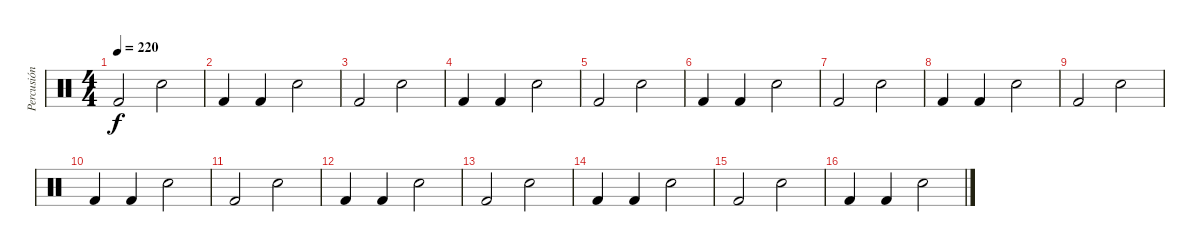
\track ("Percusión" "Percusión") {instrument percussion}
\staff {score}
\articulation defaults
\ts (4 4)
\tempo 220
\clef neutral
\ks c "Kick (hit) 2".2{dy f} "Electric Snare (hit)".2
|
"Kick (hit) 2".4 "Kick (hit) 2".4 "Electric Snare (hit)".2 |
"Kick (hit) 2".2 "Electric Snare (hit)".2 |
"Kick (hit) 2".4 "Kick (hit) 2".4 "Electric Snare (hit)".2 |
"Kick (hit) 2".2 "Electric Snare (hit)".2 |
"Kick (hit) 2".4 "Kick (hit) 2".4 "Electric Snare (hit)".2 |
"Kick (hit) 2".2 "Electric Snare (hit)".2 |
"Kick (hit) 2".4 "Kick (hit) 2".4 "Electric Snare (hit)".2 |
"Kick (hit) 2".2 "Electric Snare (hit)".2 |
"Kick (hit) 2".4 "Kick (hit) 2".4 "Electric Snare (hit)".2 |
"Kick (hit) 2".2 "Electric Snare (hit)".2 |
"Kick (hit) 2".4 "Kick (hit) 2".4 "Electric Snare (hit)".2 |
"Kick (hit) 2".2 "Electric Snare (hit)".2 |
"Kick (hit) 2".4 "Kick (hit) 2".4 "Electric Snare (hit)".2 |
"Kick (hit) 2".2 "Electric Snare (hit)".2 |
"Kick (hit) 2".4 "Kick (hit) 2".4 "Electric Snare (hit)".2
